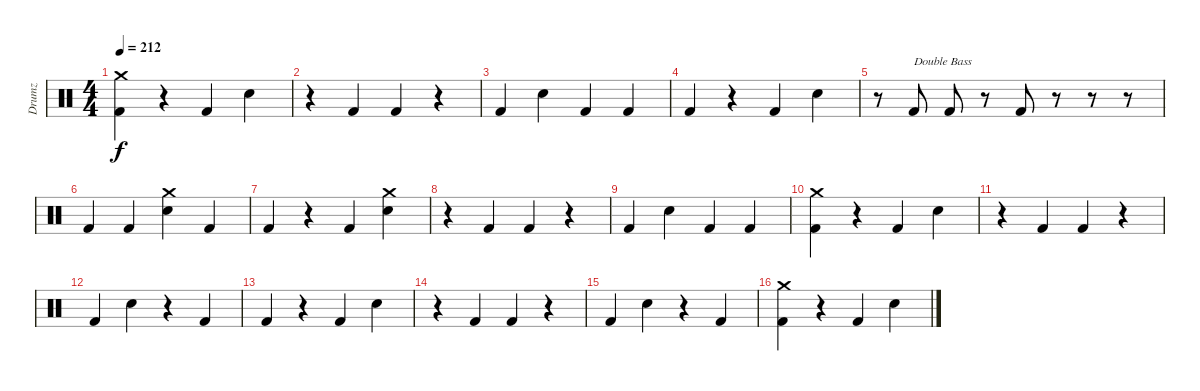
\track ("Drumz" "Drumz") {instrument percussion}
\staff {score}
\articulation defaults
\ts (4 4)
\tempo 212
\clef neutral
\ks c
("Kick (hit) 2" "Crash medium (hit)").4{dy f} r.4 "Kick (hit) 2".4 "Snare (hit) 2".4 |
r.4 "Kick (hit) 2".4 "Kick (hit) 2".4 r.4 |
"Kick (hit) 2".4 "Snare (hit) 2".4 "Kick (hit) 2".4 "Kick (hit) 2".4 |
"Kick (hit) 2".4 r.4 "Kick (hit) 2".4 "Snare (hit) 2".4 |
r.8 "Kick (hit) 2".8{txt "Double Bass"} "Kick (hit) 2".8 r.8 "Kick (hit) 2".8 r.8 r.8 r.8 |
"Kick (hit) 2".4 "Kick (hit) 2".4 ("Snare (hit) 2" "Crash medium (hit)").4 "Kick (hit) 2".4 |
"Kick (hit) 2".4 r.4 "Kick (hit) 2".4 ("Snare (hit) 2" "Crash medium (hit)").4 |
r.4 "Kick (hit) 2".4 "Kick (hit) 2".4 r.4 |
"Kick (hit) 2".4 "Snare (hit) 2".4 "Kick (hit) 2".4 "Kick (hit) 2".4 |
("Kick (hit) 2" "Crash medium (hit)").4 r.4 "Kick (hit) 2".4 "Snare (hit) 2".4 |
r.4 "Kick (hit) 2".4 "Kick (hit) 2".4 r.4 |
"Kick (hit) 2".4 "Snare (hit) 2".4 r.4 "Kick (hit) 2".4 |
"Kick (hit) 2".4 r.4 "Kick (hit) 2".4 "Snare (hit) 2".4 |
r.4 "Kick (hit) 2".4 "Kick (hit) 2".4 r.4 |
"Kick (hit) 2".4 "Snare (hit) 2".4 r.4 "Kick (hit) 2".4 |
("Kick (hit) 2" "Crash medium (hit)").4 r.4 "Kick (hit) 2".4 "Snare (hit) 2".4
